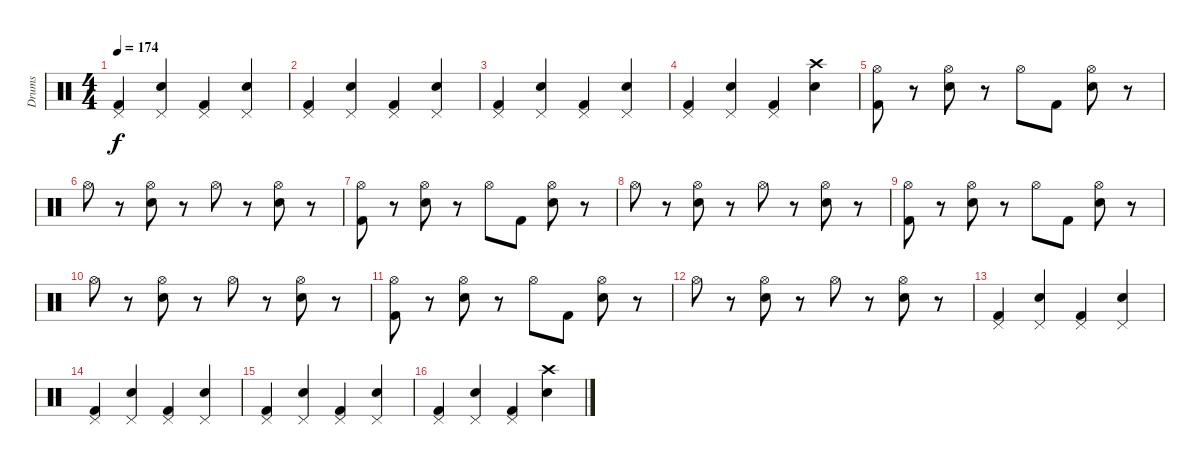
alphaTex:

\track ("Drums" "Drums") {instrument percussion}
\staff {score}
\articulation defaults
\ts (4 4)
\tempo 174
\clef neutral
\ks c
("Pedal Hi-Hat (hit)" "Kick (hit) 2").4{dy f volume 13} ("Pedal Hi-Hat (hit)" "Snare (hit) 2").4 ("Pedal Hi-Hat (hit)" "Kick (hit) 2").4 ("Pedal Hi-Hat (hit)" "Snare (hit) 2").4 |
("Pedal Hi-Hat (hit)" "Kick (hit) 2").4 ("Pedal Hi-Hat (hit)" "Snare (hit) 2").4 ("Pedal Hi-Hat (hit)" "Kick (hit) 2").4 ("Pedal Hi-Hat (hit)" "Snare (hit) 2").4 |
("Pedal Hi-Hat (hit)" "Kick (hit) 2").4 ("Pedal Hi-Hat (hit)" "Snare (hit) 2").4 ("Pedal Hi-Hat (hit)" "Kick (hit) 2").4 ("Pedal Hi-Hat (hit)" "Snare (hit) 2").4 |
("Pedal Hi-Hat (hit)" "Kick (hit) 2").4 ("Pedal Hi-Hat (hit)" "Snare (hit) 2").4 ("Pedal Hi-Hat (hit)" "Kick (hit) 2").4 ("Crash high (hit)" "Snare (hit) 2").4 |
("Hi-Hat (open)" "Kick (hit) 2").8 r.8 ("Hi-Hat (open)" "Snare (hit) 2").8 r.8 "Hi-Hat (open)".8 "Kick (hit) 2".8 ("Hi-Hat (open)" "Snare (hit) 2").8 r.8 |
"Hi-Hat (open)".8 r.8 ("Hi-Hat (open)" "Snare (hit) 2").8 r.8 "Hi-Hat (open)".8 r.8 ("Hi-Hat (open)" "Snare (hit) 2").8 r.8 |
("Hi-Hat (open)" "Kick (hit) 2").8 r.8 ("Hi-Hat (open)" "Snare (hit) 2").8 r.8 "Hi-Hat (open)".8 "Kick (hit) 2".8 ("Hi-Hat (open)" "Snare (hit) 2").8 r.8 |
"Hi-Hat (open)".8 r.8 ("Hi-Hat (open)" "Snare (hit) 2").8 r.8 "Hi-Hat (open)".8 r.8 ("Hi-Hat (open)" "Snare (hit) 2").8 r.8 |
("Hi-Hat (open)" "Kick (hit) 2").8 r.8 ("Hi-Hat (open)" "Snare (hit) 2").8 r.8 "Hi-Hat (open)".8 "Kick (hit) 2".8 ("Hi-Hat (open)" "Snare (hit) 2").8 r.8 |
"Hi-Hat (open)".8 r.8 ("Hi-Hat (open)" "Snare (hit) 2").8 r.8 "Hi-Hat (open)".8 r.8 ("Hi-Hat (open)" "Snare (hit) 2").8 r.8 |
("Hi-Hat (open)" "Kick (hit) 2").8 r.8 ("Hi-Hat (open)" "Snare (hit) 2").8 r.8 "Hi-Hat (open)".8 "Kick (hit) 2".8 ("Hi-Hat (open)" "Snare (hit) 2").8 r.8 |
"Hi-Hat (open)".8 r.8 ("Hi-Hat (open)" "Snare (hit) 2").8 r.8 "Hi-Hat (open)".8 r.8 ("Hi-Hat (open)" "Snare (hit) 2").8 r.8 |
("Pedal Hi-Hat (hit)" "Kick (hit) 2").4{volume 13} ("Pedal Hi-Hat (hit)" "Snare (hit) 2").4 ("Pedal Hi-Hat (hit)" "Kick (hit) 2").4 ("Pedal Hi-Hat (hit)" "Snare (hit) 2").4 |
("Pedal Hi-Hat (hit)" "Kick (hit) 2").4 ("Pedal Hi-Hat (hit)" "Snare (hit) 2").4 ("Pedal Hi-Hat (hit)" "Kick (hit) 2").4 ("Pedal Hi-Hat (hit)" "Snare (hit) 2").4 |
("Pedal Hi-Hat (hit)" "Kick (hit) 2").4 ("Pedal Hi-Hat (hit)" "Snare (hit) 2").4 ("Pedal Hi-Hat (hit)" "Kick (hit) 2").4 ("Pedal Hi-Hat (hit)" "Snare (hit) 2").4 |
("Pedal Hi-Hat (hit)" "Kick (hit) 2").4 ("Pedal Hi-Hat (hit)" "Snare (hit) 2").4 ("Pedal Hi-Hat (hit)" "Kick (hit) 2").4 ("Crash high (hit)" "Snare (hit) 2").4
